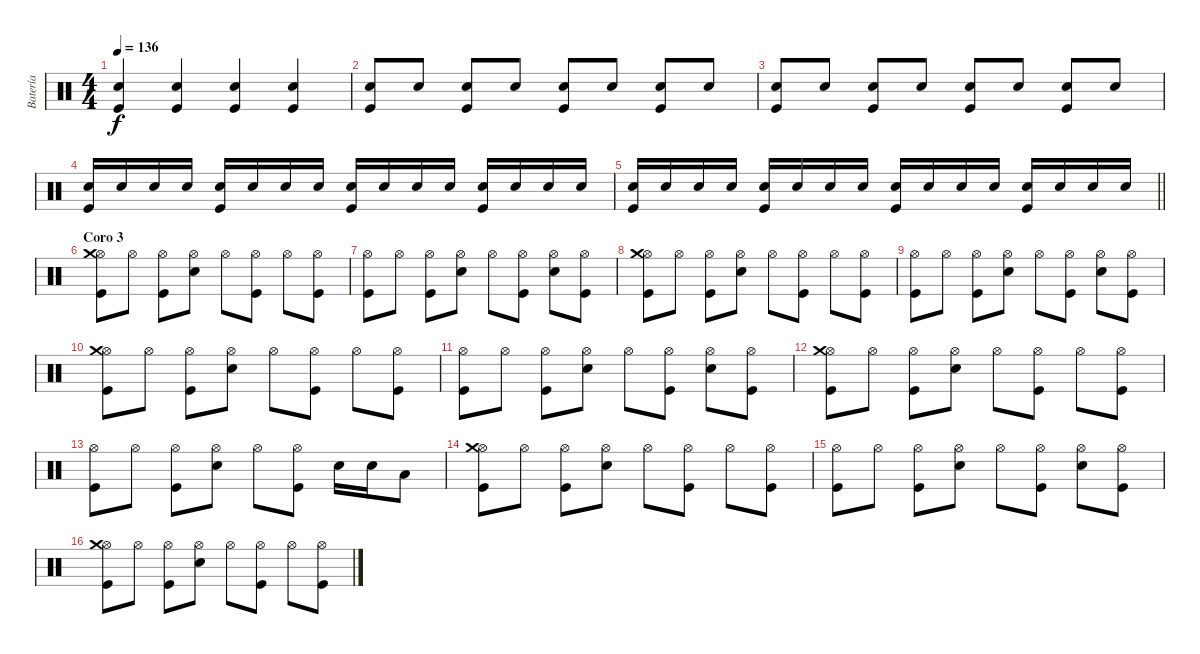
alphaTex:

\track ("Batería" "Batería") {instrument percussion}
\staff {score}
\articulation defaults
\ts (4 4)
\tempo 136
\clef neutral
\ks c
("Snare (hit) 2" "Kick (hit)").4{dy f} ("Snare (hit) 2" "Kick (hit)").4 ("Snare (hit) 2" "Kick (hit)").4 ("Snare (hit) 2" "Kick (hit)").4 |
("Snare (hit) 2" "Kick (hit)").8 "Snare (hit) 2".8 ("Snare (hit) 2" "Kick (hit)").8 "Snare (hit) 2".8 ("Snare (hit) 2" "Kick (hit)").8 "Snare (hit) 2".8 ("Snare (hit) 2" "Kick (hit)").8 "Snare (hit) 2".8 |
("Snare (hit) 2" "Kick (hit)").8 "Snare (hit) 2".8 ("Snare (hit) 2" "Kick (hit)").8 "Snare (hit) 2".8 ("Snare (hit) 2" "Kick (hit)").8 "Snare (hit) 2".8 ("Snare (hit) 2" "Kick (hit)").8 "Snare (hit) 2".8 |
("Snare (hit) 2" "Kick (hit)").16 "Snare (hit) 2".16 "Snare (hit) 2".16 "Snare (hit) 2".16 ("Snare (hit) 2" "Kick (hit)").16 "Snare (hit) 2".16 "Snare (hit) 2".16 "Snare (hit) 2".16 ("Snare (hit) 2" "Kick (hit)").16 "Snare (hit) 2".16 "Snare (hit) 2".16 "Snare (hit) 2".16 ("Snare (hit) 2" "Kick (hit)").16 "Snare (hit) 2".16 "Snare (hit) 2".16 "Snare (hit) 2".16 |
\barLineRight lightlight
("Snare (hit) 2" "Kick (hit)").16 "Snare (hit) 2".16 "Snare (hit) 2".16 "Snare (hit) 2".16 ("Snare (hit) 2" "Kick (hit)").16 "Snare (hit) 2".16 "Snare (hit) 2".16 "Snare (hit) 2".16 ("Snare (hit) 2" "Kick (hit)").16 "Snare (hit) 2".16 "Snare (hit) 2".16 "Snare (hit) 2".16 ("Snare (hit) 2" "Kick (hit)").16 "Snare (hit) 2".16 "Snare (hit) 2".16 "Snare (hit) 2".16 |
\section ("" "Coro 3")
("Hi-Hat (open)" "Crash medium (hit)" "Kick (hit)").8 "Hi-Hat (open)".8 ("Hi-Hat (open)" "Kick (hit)").8 ("Hi-Hat (open)" "Snare (hit) 2").8 "Hi-Hat (open)".8 ("Hi-Hat (open)" "Kick (hit)").8 "Hi-Hat (open)".8 ("Hi-Hat (open)" "Kick (hit)").8 |
("Hi-Hat (open)" "Kick (hit)").8 "Hi-Hat (open)".8 ("Hi-Hat (open)" "Kick (hit)").8 ("Hi-Hat (open)" "Snare (hit) 2").8 "Hi-Hat (open)".8 ("Hi-Hat (open)" "Kick (hit)").8 ("Hi-Hat (open)" "Snare (hit) 2").8 ("Hi-Hat (open)" "Kick (hit)").8 |
("Hi-Hat (open)" "Crash medium (hit)" "Kick (hit)").8 "Hi-Hat (open)".8 ("Hi-Hat (open)" "Kick (hit)").8 ("Hi-Hat (open)" "Snare (hit) 2").8 "Hi-Hat (open)".8 ("Hi-Hat (open)" "Kick (hit)").8 "Hi-Hat (open)".8 ("Hi-Hat (open)" "Kick (hit)").8 |
("Hi-Hat (open)" "Kick (hit)").8 "Hi-Hat (open)".8 ("Hi-Hat (open)" "Kick (hit)").8 ("Hi-Hat (open)" "Snare (hit) 2").8 "Hi-Hat (open)".8 ("Hi-Hat (open)" "Kick (hit)").8 ("Hi-Hat (open)" "Snare (hit) 2").8 ("Hi-Hat (open)" "Kick (hit)").8 |
("Hi-Hat (open)" "Crash medium (hit)" "Kick (hit)").8 "Hi-Hat (open)".8 ("Hi-Hat (open)" "Kick (hit)").8 ("Hi-Hat (open)" "Snare (hit) 2").8 "Hi-Hat (open)".8 ("Hi-Hat (open)" "Kick (hit)").8 "Hi-Hat (open)".8 ("Hi-Hat (open)" "Kick (hit)").8 |
("Hi-Hat (open)" "Kick (hit)").8 "Hi-Hat (open)".8 ("Hi-Hat (open)" "Kick (hit)").8 ("Hi-Hat (open)" "Snare (hit) 2").8 "Hi-Hat (open)".8 ("Hi-Hat (open)" "Kick (hit)").8 ("Hi-Hat (open)" "Snare (hit) 2").8 ("Hi-Hat (open)" "Kick (hit)").8 |
("Hi-Hat (open)" "Crash medium (hit)" "Kick (hit)").8 "Hi-Hat (open)".8 ("Hi-Hat (open)" "Kick (hit)").8 ("Hi-Hat (open)" "Snare (hit) 2").8 "Hi-Hat (open)".8 ("Hi-Hat (open)" "Kick (hit)").8 "Hi-Hat (open)".8 ("Hi-Hat (open)" "Kick (hit)").8 |
("Hi-Hat (open)" "Kick (hit)").8 "Hi-Hat (open)".8 ("Hi-Hat (open)" "Kick (hit)").8 ("Hi-Hat (open)" "Snare (hit) 2").8 "Hi-Hat (open)".8 ("Hi-Hat (open)" "Kick (hit)").8 "Snare (hit) 2".16 "Snare (hit) 2".16 "Low Tom (hit)".8 |
("Hi-Hat (open)" "Crash medium (hit)" "Kick (hit)").8 "Hi-Hat (open)".8 ("Hi-Hat (open)" "Kick (hit)").8 ("Hi-Hat (open)" "Snare (hit) 2").8 "Hi-Hat (open)".8 ("Hi-Hat (open)" "Kick (hit)").8 "Hi-Hat (open)".8 ("Hi-Hat (open)" "Kick (hit)").8 |
("Hi-Hat (open)" "Kick (hit)").8 "Hi-Hat (open)".8 ("Hi-Hat (open)" "Kick (hit)").8 ("Hi-Hat (open)" "Snare (hit) 2").8 "Hi-Hat (open)".8 ("Hi-Hat (open)" "Kick (hit)").8 ("Hi-Hat (open)" "Snare (hit) 2").8 ("Hi-Hat (open)" "Kick (hit)").8 |
("Hi-Hat (open)" "Crash medium (hit)" "Kick (hit)").8 "Hi-Hat (open)".8 ("Hi-Hat (open)" "Kick (hit)").8 ("Hi-Hat (open)" "Snare (hit) 2").8 "Hi-Hat (open)".8 ("Hi-Hat (open)" "Kick (hit)").8 "Hi-Hat (open)".8 ("Hi-Hat (open)" "Kick (hit)").8
